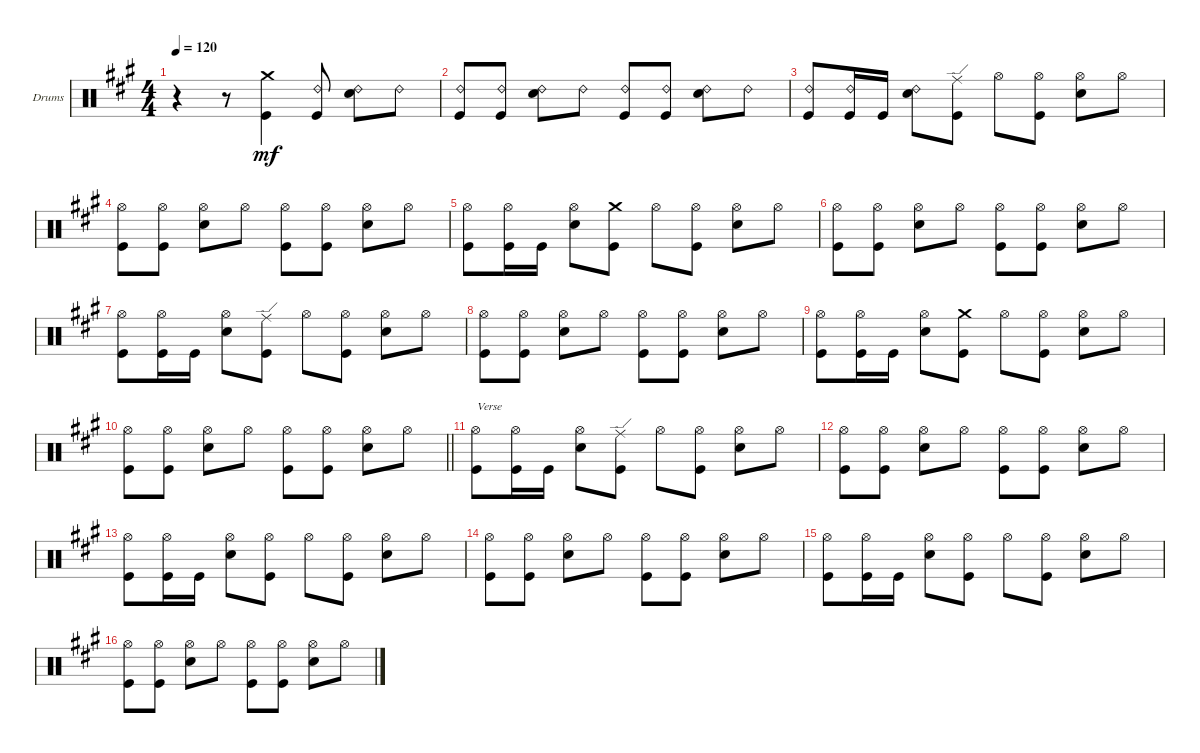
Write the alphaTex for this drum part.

\bracketExtendMode groupsimilarinstruments
\firstSystemTrackNameOrientation horizontal
\otherSystemsTrackNameOrientation horizontal
\track ("Drumkit" "Drums") {instrument percussion}
\staff {score}
\articulation defaults
\ts (4 4)
\beaming (8 2 2 2 2)
\tempo 120
\clef neutral
\ks a
r.4{dy mf} r.8 ("Kick (hit)" "Crash medium (hit)").4 ("Kick (hit)" "Ride (bell) 2").8 ("Snare (hit) 2" "Ride (bell) 2").8 "Ride (bell) 2".8 |
("Ride (bell) 2" "Kick (hit)").8 ("Ride (bell) 2" "Kick (hit)").8 ("Ride (bell) 2" "Snare (hit) 2").8 "Ride (bell) 2".8 ("Ride (bell) 2" "Kick (hit)").8 ("Ride (bell) 2" "Kick (hit)").8 ("Ride (bell) 2" "Snare (hit) 2").8 "Ride (bell) 2".8 |
("Kick (hit)" "Ride (bell) 2").8 ("Kick (hit)" "Ride (bell) 2").16 "Kick (hit)".16 ("Snare (hit) 2" "Ride (bell) 2").8 ("Kick (hit)" "Ride (edge)").8 "Hi-Hat (open)".8 ("Hi-Hat (open)" "Kick (hit)").8 ("Hi-Hat (open)" "Snare (hit) 2").8 "Hi-Hat (open)".8 |
("Hi-Hat (open)" "Kick (hit)").8 ("Hi-Hat (open)" "Kick (hit)").8 ("Hi-Hat (open)" "Snare (hit) 2").8 "Hi-Hat (open)".8 ("Hi-Hat (open)" "Kick (hit)").8 ("Hi-Hat (open)" "Kick (hit)").8 ("Hi-Hat (open)" "Snare (hit) 2").8 "Hi-Hat (open)".8 |
("Kick (hit)" "Hi-Hat (open)").8 ("Kick (hit)" "Hi-Hat (open)").16 "Kick (hit)".16 ("Snare (hit) 2" "Hi-Hat (open)").8 ("Kick (hit)" "Crash medium (hit)").8 "Hi-Hat (open)".8 ("Hi-Hat (open)" "Kick (hit)").8 ("Hi-Hat (open)" "Snare (hit) 2").8 "Hi-Hat (open)".8 |
("Hi-Hat (open)" "Kick (hit)").8 ("Hi-Hat (open)" "Kick (hit)").8 ("Hi-Hat (open)" "Snare (hit) 2").8 "Hi-Hat (open)".8 ("Hi-Hat (open)" "Kick (hit)").8 ("Hi-Hat (open)" "Kick (hit)").8 ("Hi-Hat (open)" "Snare (hit) 2").8 "Hi-Hat (open)".8 |
("Kick (hit)" "Hi-Hat (open)").8 ("Kick (hit)" "Hi-Hat (open)").16 "Kick (hit)".16 ("Snare (hit) 2" "Hi-Hat (open)").8 ("Kick (hit)" "Ride (edge)").8 "Hi-Hat (open)".8 ("Hi-Hat (open)" "Kick (hit)").8 ("Hi-Hat (open)" "Snare (hit) 2").8 "Hi-Hat (open)".8 |
("Hi-Hat (open)" "Kick (hit)").8 ("Hi-Hat (open)" "Kick (hit)").8 ("Hi-Hat (open)" "Snare (hit) 2").8 "Hi-Hat (open)".8 ("Hi-Hat (open)" "Kick (hit)").8 ("Hi-Hat (open)" "Kick (hit)").8 ("Hi-Hat (open)" "Snare (hit) 2").8 "Hi-Hat (open)".8 |
("Kick (hit)" "Hi-Hat (open)").8 ("Kick (hit)" "Hi-Hat (open)").16 "Kick (hit)".16 ("Snare (hit) 2" "Hi-Hat (open)").8 ("Kick (hit)" "Crash medium (hit)").8 "Hi-Hat (open)".8 ("Hi-Hat (open)" "Kick (hit)").8 ("Hi-Hat (open)" "Snare (hit) 2").8 "Hi-Hat (open)".8 |
\barLineRight lightlight
("Hi-Hat (open)" "Kick (hit)").8 ("Hi-Hat (open)" "Kick (hit)").8 ("Hi-Hat (open)" "Snare (hit) 2").8 "Hi-Hat (open)".8 ("Hi-Hat (open)" "Kick (hit)").8 ("Hi-Hat (open)" "Kick (hit)").8 ("Hi-Hat (open)" "Snare (hit) 2").8 "Hi-Hat (open)".8 |
("Kick (hit)" "Hi-Hat (open)").8{txt "Verse"} ("Kick (hit)" "Hi-Hat (open)").16 "Kick (hit)".16 ("Snare (hit) 2" "Hi-Hat (open)").8 ("Kick (hit)" "Ride (edge)").8 "Hi-Hat (open)".8 ("Hi-Hat (open)" "Kick (hit)").8 ("Hi-Hat (open)" "Snare (hit) 2").8 "Hi-Hat (open)".8 |
("Hi-Hat (open)" "Kick (hit)").8 ("Hi-Hat (open)" "Kick (hit)").8 ("Hi-Hat (open)" "Snare (hit) 2").8 "Hi-Hat (open)".8 ("Hi-Hat (open)" "Kick (hit)").8 ("Hi-Hat (open)" "Kick (hit)").8 ("Hi-Hat (open)" "Snare (hit) 2").8 "Hi-Hat (open)".8 |
("Kick (hit)" "Hi-Hat (open)").8 ("Kick (hit)" "Hi-Hat (open)").16 "Kick (hit)".16 ("Snare (hit) 2" "Hi-Hat (open)").8 ("Kick (hit)" "Hi-Hat (open)").8 "Hi-Hat (open)".8 ("Hi-Hat (open)" "Kick (hit)").8 ("Hi-Hat (open)" "Snare (hit) 2").8 "Hi-Hat (open)".8 |
("Hi-Hat (open)" "Kick (hit)").8 ("Hi-Hat (open)" "Kick (hit)").8 ("Hi-Hat (open)" "Snare (hit) 2").8 "Hi-Hat (open)".8 ("Hi-Hat (open)" "Kick (hit)").8 ("Hi-Hat (open)" "Kick (hit)").8 ("Hi-Hat (open)" "Snare (hit) 2").8 "Hi-Hat (open)".8 |
("Kick (hit)" "Hi-Hat (open)").8 ("Kick (hit)" "Hi-Hat (open)").16 "Kick (hit)".16 ("Snare (hit) 2" "Hi-Hat (open)").8 ("Kick (hit)" "Hi-Hat (open)").8 "Hi-Hat (open)".8 ("Hi-Hat (open)" "Kick (hit)").8 ("Hi-Hat (open)" "Snare (hit) 2").8 "Hi-Hat (open)".8 |
("Hi-Hat (open)" "Kick (hit)").8 ("Hi-Hat (open)" "Kick (hit)").8 ("Hi-Hat (open)" "Snare (hit) 2").8 "Hi-Hat (open)".8 ("Hi-Hat (open)" "Kick (hit)").8 ("Hi-Hat (open)" "Kick (hit)").8 ("Hi-Hat (open)" "Snare (hit) 2").8 "Hi-Hat (open)".8
